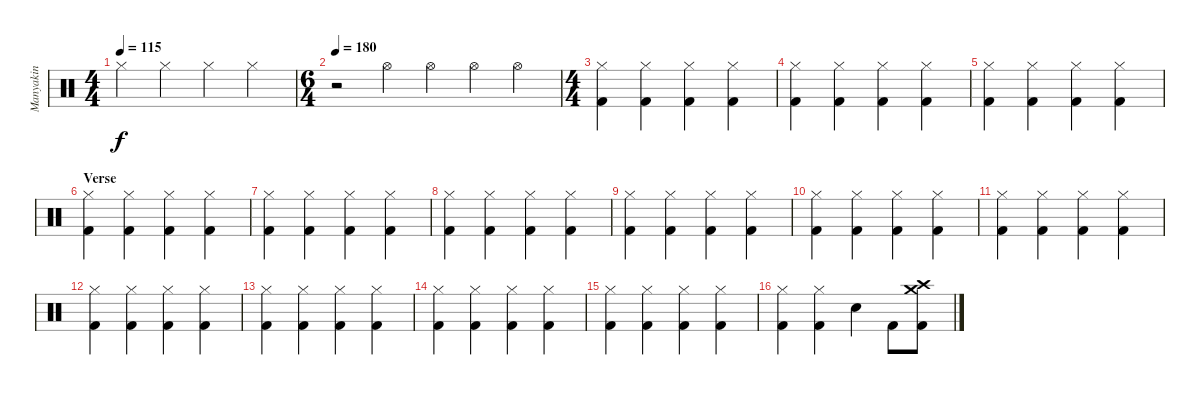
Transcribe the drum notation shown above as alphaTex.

\track ("Manyakin" "Manyakin") {instrument percussion}
\staff {score}
\articulation defaults
\ts (4 4)
\tempo 115
\clef neutral
\ks c "Hi-Hat (closed)".4{dy f} "Hi-Hat (closed)".4 "Hi-Hat (closed)".4 "Hi-Hat (closed)".4
|
\ts (6 4)
\tempo 180
r.2 "Hi-Hat (open)".4 "Hi-Hat (open)".4 "Hi-Hat (open)".4 "Hi-Hat (open)".4 |
\ts (4 4)
("Kick (hit) 2" "Hi-Hat (closed)").4 ("Kick (hit) 2" "Hi-Hat (closed)").4 ("Kick (hit) 2" "Hi-Hat (closed)").4 ("Kick (hit) 2" "Hi-Hat (closed)").4 |
("Kick (hit) 2" "Hi-Hat (closed)").4 ("Kick (hit) 2" "Hi-Hat (closed)").4 ("Kick (hit) 2" "Hi-Hat (closed)").4 ("Kick (hit) 2" "Hi-Hat (closed)").4 |
("Kick (hit) 2" "Hi-Hat (closed)").4 ("Kick (hit) 2" "Hi-Hat (closed)").4 ("Kick (hit) 2" "Hi-Hat (closed)").4 ("Kick (hit) 2" "Hi-Hat (closed)").4 |
\section ("" "Verse")
("Kick (hit) 2" "Hi-Hat (closed)").4 ("Kick (hit) 2" "Hi-Hat (closed)").4 ("Kick (hit) 2" "Hi-Hat (closed)").4 ("Kick (hit) 2" "Hi-Hat (closed)").4 |
("Kick (hit) 2" "Hi-Hat (closed)").4 ("Kick (hit) 2" "Hi-Hat (closed)").4 ("Kick (hit) 2" "Hi-Hat (closed)").4 ("Kick (hit) 2" "Hi-Hat (closed)").4 |
("Kick (hit) 2" "Hi-Hat (closed)").4 ("Kick (hit) 2" "Hi-Hat (closed)").4 ("Kick (hit) 2" "Hi-Hat (closed)").4 ("Kick (hit) 2" "Hi-Hat (closed)").4 |
("Kick (hit) 2" "Hi-Hat (closed)").4 ("Kick (hit) 2" "Hi-Hat (closed)").4 ("Kick (hit) 2" "Hi-Hat (closed)").4 ("Kick (hit) 2" "Hi-Hat (closed)").4 |
("Kick (hit) 2" "Hi-Hat (closed)").4 ("Kick (hit) 2" "Hi-Hat (closed)").4 ("Kick (hit) 2" "Hi-Hat (closed)").4 ("Kick (hit) 2" "Hi-Hat (closed)").4 |
("Kick (hit) 2" "Hi-Hat (closed)").4 ("Kick (hit) 2" "Hi-Hat (closed)").4 ("Kick (hit) 2" "Hi-Hat (closed)").4 ("Kick (hit) 2" "Hi-Hat (closed)").4 |
("Kick (hit) 2" "Hi-Hat (closed)").4 ("Kick (hit) 2" "Hi-Hat (closed)").4 ("Kick (hit) 2" "Hi-Hat (closed)").4 ("Kick (hit) 2" "Hi-Hat (closed)").4 |
("Kick (hit) 2" "Hi-Hat (closed)").4 ("Kick (hit) 2" "Hi-Hat (closed)").4 ("Kick (hit) 2" "Hi-Hat (closed)").4 ("Kick (hit) 2" "Hi-Hat (closed)").4 |
("Kick (hit) 2" "Hi-Hat (closed)").4 ("Kick (hit) 2" "Hi-Hat (closed)").4 ("Kick (hit) 2" "Hi-Hat (closed)").4 ("Kick (hit) 2" "Hi-Hat (closed)").4 |
("Kick (hit) 2" "Hi-Hat (closed)").4 ("Kick (hit) 2" "Hi-Hat (closed)").4 ("Kick (hit) 2" "Hi-Hat (closed)").4 ("Kick (hit) 2" "Hi-Hat (closed)").4 |
("Kick (hit) 2" "Hi-Hat (closed)").4 ("Kick (hit) 2" "Hi-Hat (closed)").4 "Snare (hit) 2".4 "Kick (hit) 2".8 ("Kick (hit) 2" "Crash high (hit)" "Crash medium (hit)").8
